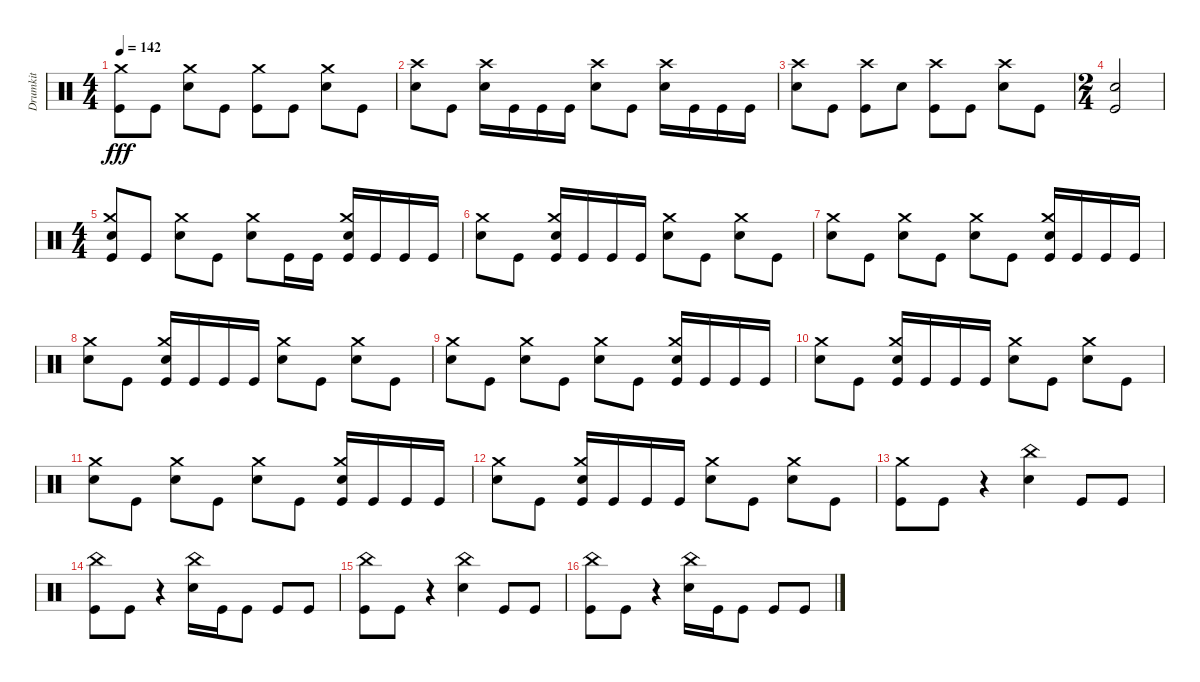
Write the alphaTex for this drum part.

\track ("Drumkit" "Drumkit") {instrument percussion}
\staff {score}
\articulation defaults
\ts (4 4)
\tempo 142
\clef neutral
\ks c
("Kick (hit)" "Crash medium (hit)").8{dy fff} "Kick (hit)".8 ("Snare (hit) 2" "Crash medium (hit)").8 "Kick (hit)".8 ("Kick (hit)" "Crash medium (hit)").8 "Kick (hit)".8 ("Snare (hit) 2" "Crash medium (hit)").8 "Kick (hit)".8 |
("Snare (hit) 2" "Crash high (hit)").8 "Kick (hit)".8 ("Snare (hit) 2" "Crash high (hit)").16 "Kick (hit)".16 "Kick (hit)".16 "Kick (hit)".16 ("Snare (hit) 2" "Crash high (hit)").8 "Kick (hit)".8 ("Snare (hit) 2" "Crash high (hit)").16 "Kick (hit)".16 "Kick (hit)".16 "Kick (hit)".16 |
("Snare (hit) 2" "Crash high (hit)").8 "Kick (hit)".8 ("Kick (hit)" "Crash high (hit)").8 "Snare (hit) 2".8 ("Kick (hit)" "Crash high (hit)").8 "Kick (hit)".8 ("Snare (hit) 2" "Crash high (hit)").8 "Kick (hit)".8 |
\ts (2 4)
("Snare (hit) 2" "Kick (hit)").2 |
\ts (4 4)
("Snare (hit) 2" "Kick (hit)" "Crash medium (hit)").8 "Kick (hit)".8 ("Snare (hit) 2" "Crash medium (hit)").8 "Kick (hit)".8 ("Snare (hit) 2" "Crash medium (hit)").8 "Kick (hit)".16 "Kick (hit)".16 ("Snare (hit) 2" "Kick (hit)" "Crash medium (hit)").16 "Kick (hit)".16 "Kick (hit)".16 "Kick (hit)".16 |
("Snare (hit) 2" "Crash medium (hit)").8 "Kick (hit)".8 ("Snare (hit) 2" "Kick (hit)" "Crash medium (hit)").16 "Kick (hit)".16 "Kick (hit)".16 "Kick (hit)".16 ("Snare (hit) 2" "Crash medium (hit)").8 "Kick (hit)".8 ("Snare (hit) 2" "Crash medium (hit)").8 "Kick (hit)".8 |
("Snare (hit) 2" "Crash medium (hit)").8 "Kick (hit)".8 ("Snare (hit) 2" "Crash medium (hit)").8 "Kick (hit)".8 ("Snare (hit) 2" "Crash medium (hit)").8 "Kick (hit)".8 ("Snare (hit) 2" "Kick (hit)" "Crash medium (hit)").16 "Kick (hit)".16 "Kick (hit)".16 "Kick (hit)".16 |
("Snare (hit) 2" "Crash medium (hit)").8 "Kick (hit)".8 ("Snare (hit) 2" "Kick (hit)" "Crash medium (hit)").16 "Kick (hit)".16 "Kick (hit)".16 "Kick (hit)".16 ("Snare (hit) 2" "Crash medium (hit)").8 "Kick (hit)".8 ("Snare (hit) 2" "Crash medium (hit)").8 "Kick (hit)".8 |
("Snare (hit) 2" "Crash medium (hit)").8 "Kick (hit)".8 ("Snare (hit) 2" "Crash medium (hit)").8 "Kick (hit)".8 ("Snare (hit) 2" "Crash medium (hit)").8 "Kick (hit)".8 ("Snare (hit) 2" "Kick (hit)" "Crash medium (hit)").16 "Kick (hit)".16 "Kick (hit)".16 "Kick (hit)".16 |
("Snare (hit) 2" "Crash medium (hit)").8 "Kick (hit)".8 ("Snare (hit) 2" "Kick (hit)" "Crash medium (hit)").16 "Kick (hit)".16 "Kick (hit)".16 "Kick (hit)".16 ("Snare (hit) 2" "Crash medium (hit)").8 "Kick (hit)".8 ("Snare (hit) 2" "Crash medium (hit)").8 "Kick (hit)".8 |
("Snare (hit) 2" "Crash medium (hit)").8 "Kick (hit)".8 ("Snare (hit) 2" "Crash medium (hit)").8 "Kick (hit)".8 ("Snare (hit) 2" "Crash medium (hit)").8 "Kick (hit)".8 ("Snare (hit) 2" "Kick (hit)" "Crash medium (hit)").16 "Kick (hit)".16 "Kick (hit)".16 "Kick (hit)".16 |
("Snare (hit) 2" "Crash medium (hit)").8 "Kick (hit)".8 ("Snare (hit) 2" "Kick (hit)" "Crash medium (hit)").16 "Kick (hit)".16 "Kick (hit)".16 "Kick (hit)".16 ("Snare (hit) 2" "Crash medium (hit)").8 "Kick (hit)".8 ("Snare (hit) 2" "Crash medium (hit)").8 "Kick (hit)".8 |
("Kick (hit)" "Crash medium (hit)").8 "Kick (hit)".8 r.4 ("Snare (hit) 2" "China (hit)").4 "Kick (hit)".8 "Kick (hit)".8 |
("Kick (hit)" "China (hit)").8 "Kick (hit)".8 r.4 ("Snare (hit) 2" "China (hit)").16 "Kick (hit)".16 "Kick (hit)".8 "Kick (hit)".8 "Kick (hit)".8 |
("Kick (hit)" "China (hit)").8 "Kick (hit)".8 r.4 ("Snare (hit) 2" "China (hit)").4 "Kick (hit)".8 "Kick (hit)".8 |
("Kick (hit)" "China (hit)").8 "Kick (hit)".8 r.4 ("Snare (hit) 2" "China (hit)").16 "Kick (hit)".16 "Kick (hit)".8 "Kick (hit)".8 "Kick (hit)".8
